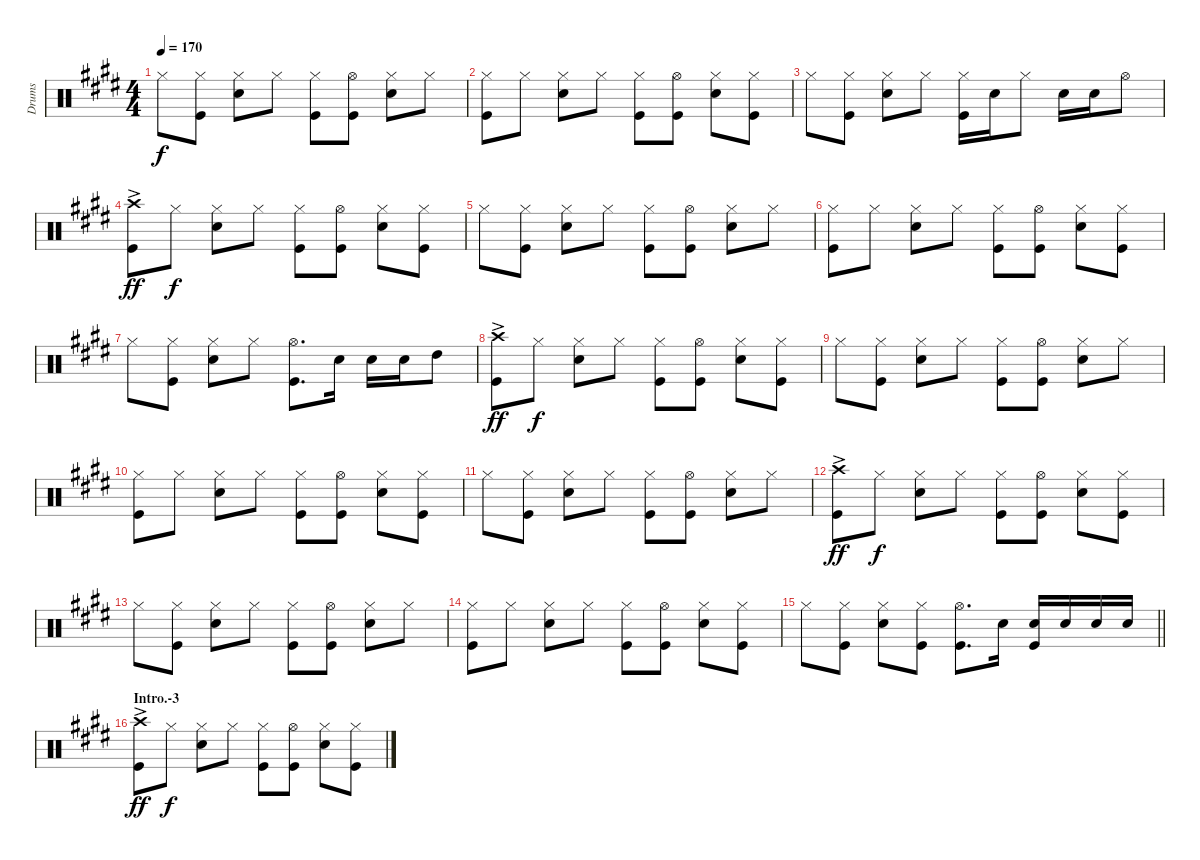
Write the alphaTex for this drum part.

\track ("Drums" "Drums") {instrument percussion}
\staff {score}
\articulation defaults
\ts (4 4)
\tempo 170
\clef neutral
\ks e "Hi-Hat (closed)".8{dy f}
("Hi-Hat (closed)" "Kick (hit)").8 ("Hi-Hat (closed)" "Snare (hit) 2").8 "Hi-Hat (closed)".8 ("Hi-Hat (closed)" "Kick (hit)").8 ("Kick (hit)" "Hi-Hat (open)").8 ("Hi-Hat (closed)" "Snare (hit) 2").8 "Hi-Hat (closed)".8 |
("Hi-Hat (closed)" "Kick (hit)").8 "Hi-Hat (closed)".8 ("Hi-Hat (closed)" "Snare (hit) 2").8 "Hi-Hat (closed)".8 ("Hi-Hat (closed)" "Kick (hit)").8 ("Kick (hit)" "Hi-Hat (open)").8 ("Hi-Hat (closed)" "Snare (hit) 2").8 ("Hi-Hat (closed)" "Kick (hit)").8 |
"Hi-Hat (closed)".8 ("Hi-Hat (closed)" "Kick (hit)").8 ("Hi-Hat (closed)" "Snare (hit) 2").8 "Hi-Hat (closed)".8 ("Hi-Hat (closed)" "Kick (hit)").16 "Snare (hit) 2".16 "Hi-Hat (closed)".8 "Snare (hit) 2".16 "Snare (hit) 2".16 "Hi-Hat (open)".8 |
("Crash high (hit)"{ac} "Kick (hit)").8{dy ff} "Hi-Hat (closed)".8{dy f} ("Hi-Hat (closed)" "Snare (hit) 2").8 "Hi-Hat (closed)".8 ("Hi-Hat (closed)" "Kick (hit)").8 ("Kick (hit)" "Hi-Hat (open)").8 ("Hi-Hat (closed)" "Snare (hit) 2").8 ("Hi-Hat (closed)" "Kick (hit)").8 |
"Hi-Hat (closed)".8 ("Hi-Hat (closed)" "Kick (hit)").8 ("Hi-Hat (closed)" "Snare (hit) 2").8 "Hi-Hat (closed)".8 ("Kick (hit)" "Hi-Hat (closed)").8 ("Hi-Hat (open)" "Kick (hit)").8 ("Snare (hit) 2" "Hi-Hat (closed)").8 "Hi-Hat (closed)".8 |
("Kick (hit)" "Hi-Hat (closed)").8 "Hi-Hat (closed)".8 ("Hi-Hat (closed)" "Snare (hit) 2").8 "Hi-Hat (closed)".8 ("Kick (hit)" "Hi-Hat (closed)").8 ("Kick (hit)" "Hi-Hat (open)").8 ("Hi-Hat (closed)" "Snare (hit) 2").8 ("Hi-Hat (closed)" "Kick (hit)").8 |
"Hi-Hat (closed)".8 ("Kick (hit)" "Hi-Hat (closed)").8 ("Hi-Hat (closed)" "Snare (hit) 2").8 "Hi-Hat (closed)".8 ("Hi-Hat (open)" "Kick (hit)").8{d} "Snare (hit) 2".16 "Snare (hit) 2".16 "Snare (hit) 2".16 "High Tom (hit)".8 |
("Crash high (hit)"{ac} "Kick (hit)").8{dy ff} "Hi-Hat (closed)".8{dy f} ("Hi-Hat (closed)" "Snare (hit) 2").8 "Hi-Hat (closed)".8 ("Kick (hit)" "Hi-Hat (closed)").8 ("Hi-Hat (open)" "Kick (hit)").8 ("Snare (hit) 2" "Hi-Hat (closed)").8 ("Hi-Hat (closed)" "Kick (hit)").8 |
"Hi-Hat (closed)".8 ("Hi-Hat (closed)" "Kick (hit)").8 ("Hi-Hat (closed)" "Snare (hit) 2").8 "Hi-Hat (closed)".8 ("Kick (hit)" "Hi-Hat (closed)").8 ("Hi-Hat (open)" "Kick (hit)").8 ("Snare (hit) 2" "Hi-Hat (closed)").8 "Hi-Hat (closed)".8 |
("Hi-Hat (closed)" "Kick (hit)").8 "Hi-Hat (closed)".8 ("Hi-Hat (closed)" "Snare (hit) 2").8 "Hi-Hat (closed)".8 ("Hi-Hat (closed)" "Kick (hit)").8 ("Kick (hit)" "Hi-Hat (open)").8 ("Hi-Hat (closed)" "Snare (hit) 2").8 ("Hi-Hat (closed)" "Kick (hit)").8 |
"Hi-Hat (closed)".8 ("Hi-Hat (closed)" "Kick (hit)").8 ("Hi-Hat (closed)" "Snare (hit) 2").8 "Hi-Hat (closed)".8 ("Kick (hit)" "Hi-Hat (closed)").8 ("Hi-Hat (open)" "Kick (hit)").8 ("Snare (hit) 2" "Hi-Hat (closed)").8 "Hi-Hat (closed)".8 |
("Crash high (hit)"{ac} "Kick (hit)").8{dy ff} "Hi-Hat (closed)".8{dy f} ("Hi-Hat (closed)" "Snare (hit) 2").8 "Hi-Hat (closed)".8 ("Hi-Hat (closed)" "Kick (hit)").8 ("Kick (hit)" "Hi-Hat (open)").8 ("Hi-Hat (closed)" "Snare (hit) 2").8 ("Hi-Hat (closed)" "Kick (hit)").8 |
"Hi-Hat (closed)".8 ("Hi-Hat (closed)" "Kick (hit)").8 ("Hi-Hat (closed)" "Snare (hit) 2").8 "Hi-Hat (closed)".8 ("Kick (hit)" "Hi-Hat (closed)").8 ("Hi-Hat (open)" "Kick (hit)").8 ("Snare (hit) 2" "Hi-Hat (closed)").8 "Hi-Hat (closed)".8 |
("Kick (hit)" "Hi-Hat (closed)").8 "Hi-Hat (closed)".8 ("Snare (hit) 2" "Hi-Hat (closed)").8 "Hi-Hat (closed)".8 ("Hi-Hat (closed)" "Kick (hit)").8 ("Kick (hit)" "Hi-Hat (open)").8 ("Hi-Hat (closed)" "Snare (hit) 2").8 ("Hi-Hat (closed)" "Kick (hit)").8 |
\barLineRight lightlight "Hi-Hat (closed)".8
("Kick (hit)" "Hi-Hat (closed)").8 ("Hi-Hat (closed)" "Snare (hit) 2").8 ("Hi-Hat (closed)" "Kick (hit)").8 ("Hi-Hat (open)" "Kick (hit)").8{d} "Snare (hit) 2".16 ("Kick (hit)" "Snare (hit) 2").16 "Snare (hit) 2".16 "Snare (hit) 2".16 "Snare (hit) 2".16 |
\section ("" "Intro.-3")
("Crash high (hit)"{ac} "Kick (hit)").8{dy ff} "Hi-Hat (closed)".8{dy f} ("Hi-Hat (closed)" "Snare (hit) 2").8 "Hi-Hat (closed)".8 ("Hi-Hat (closed)" "Kick (hit)").8 ("Kick (hit)" "Hi-Hat (open)").8 ("Hi-Hat (closed)" "Snare (hit) 2").8 ("Hi-Hat (closed)" "Kick (hit)").8
